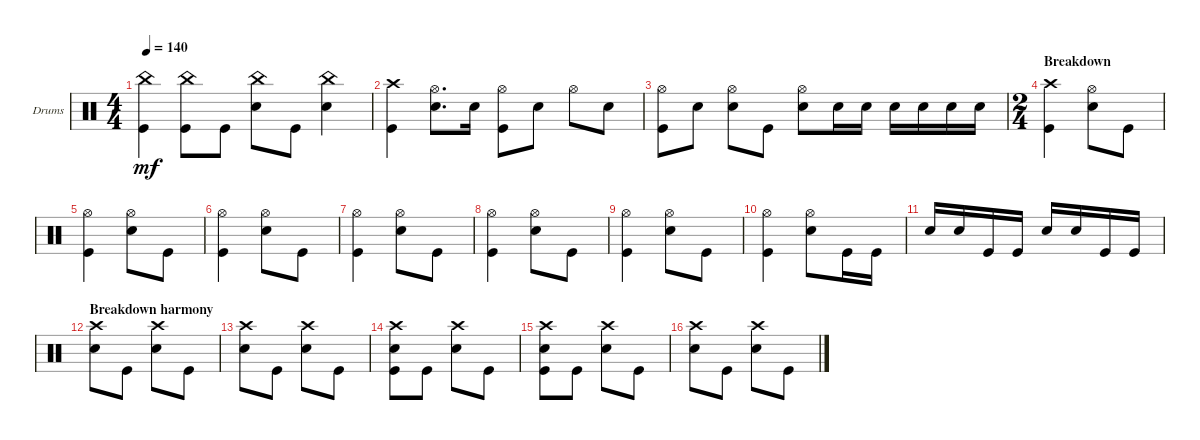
\bracketExtendMode groupsimilarinstruments
\firstSystemTrackNameOrientation horizontal
\otherSystemsTrackNameOrientation horizontal
\track ("Drumkit" "Drums") {instrument percussion}
\staff {score}
\articulation defaults
\ts (4 4)
\tempo 140
\clef neutral
\ks c
("Kick (hit)" "China (hit)").4{dy mf} ("Kick (hit)" "China (hit)").8 "Kick (hit)".8 ("Snare (hit) 2" "China (hit)").8 "Kick (hit)".8 ("Snare (hit) 2" "China (hit)").4 |
("Kick (hit)" "Crash high (hit)").4 ("Snare (hit) 2" "Hi-Hat (open)").8{d} "Snare (hit) 2".16 ("Kick (hit)" "Hi-Hat (open)").8 "Snare (hit) 2".8 "Hi-Hat (open)".8 "Snare (hit) 2".8 |
("Kick (hit)" "Hi-Hat (open)").8 "Snare (hit) 2".8 ("Snare (hit) 2" "Hi-Hat (open)").8 "Kick (hit)".8 ("Snare (hit) 2" "Hi-Hat (open)").8 "Snare (hit) 2".16 "Snare (hit) 2".16 "Snare (hit) 2".16 "Snare (hit) 2".16 "Snare (hit) 2".16 "Snare (hit) 2".16 |
\ts (2 4)
\section ("" "Breakdown")
("Kick (hit)" "Crash high (hit)").4 ("Snare (hit) 2" "Hi-Hat (open)").8 "Kick (hit)".8 |
("Hi-Hat (open)" "Kick (hit)").4 ("Snare (hit) 2" "Hi-Hat (open)").8 "Kick (hit)".8 |
("Hi-Hat (open)" "Kick (hit)").4 ("Snare (hit) 2" "Hi-Hat (open)").8 "Kick (hit)".8 |
("Hi-Hat (open)" "Kick (hit)").4 ("Snare (hit) 2" "Hi-Hat (open)").8 "Kick (hit)".8 |
("Hi-Hat (open)" "Kick (hit)").4 ("Snare (hit) 2" "Hi-Hat (open)").8 "Kick (hit)".8 |
("Hi-Hat (open)" "Kick (hit)").4 ("Snare (hit) 2" "Hi-Hat (open)").8 "Kick (hit)".8 |
("Hi-Hat (open)" "Kick (hit)").4 ("Snare (hit) 2" "Hi-Hat (open)").8 "Kick (hit)".16 "Kick (hit)".16 |
"Snare (hit) 2".16 "Snare (hit) 2".16 "Kick (hit)".16 "Kick (hit)".16 "Snare (hit) 2".16 "Snare (hit) 2".16 "Kick (hit)".16 "Kick (hit)".16 |
\section ("" "Breakdown harmony")
("Snare (hit) 2" "Crash high (hit)").8 "Kick (hit)".8 ("Snare (hit) 2" "Crash high (hit)").8 "Kick (hit)".8 |
("Snare (hit) 2" "Crash high (hit)").8 "Kick (hit)".8 ("Snare (hit) 2" "Crash high (hit)").8 "Kick (hit)".8 |
("Snare (hit) 2" "Crash high (hit)" "Kick (hit)").8 "Kick (hit)".8 ("Snare (hit) 2" "Crash high (hit)").8 "Kick (hit)".8 |
("Snare (hit) 2" "Crash high (hit)" "Kick (hit)").8 "Kick (hit)".8 ("Snare (hit) 2" "Crash high (hit)").8 "Kick (hit)".8 |
("Snare (hit) 2" "Crash high (hit)").8 "Kick (hit)".8 ("Snare (hit) 2" "Crash high (hit)").8 "Kick (hit)".8
